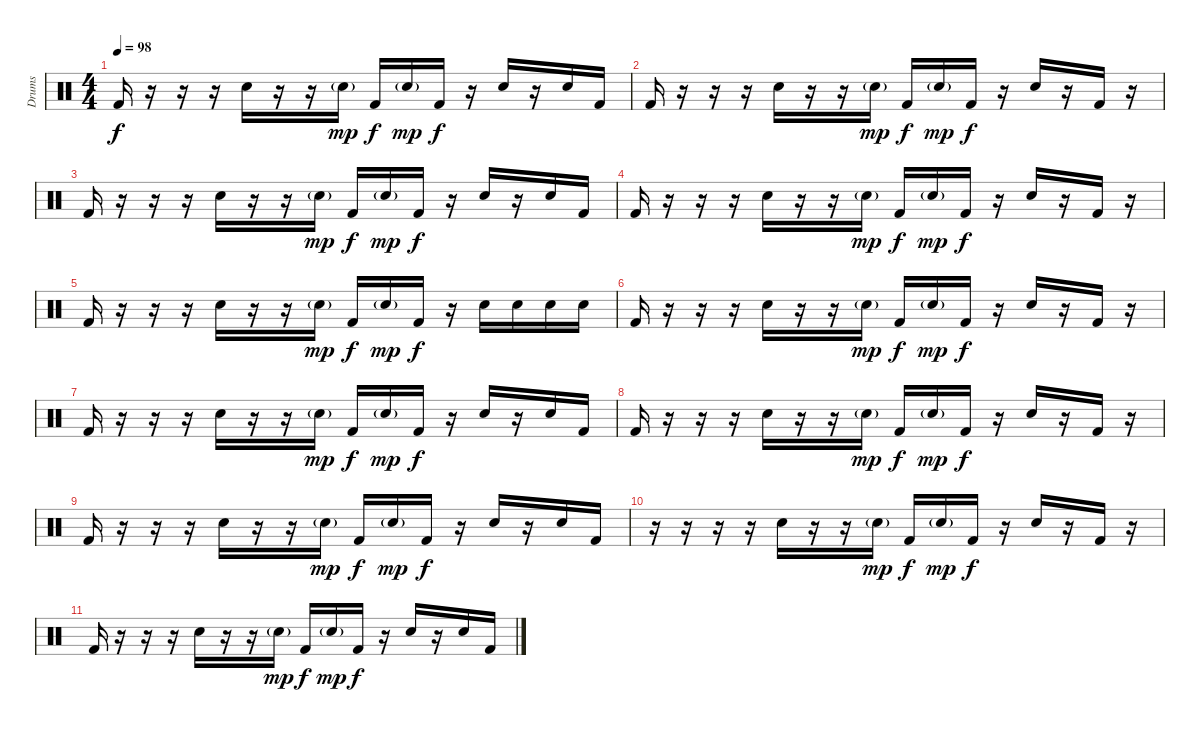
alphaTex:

\track ("Drums" "Drums") {instrument percussion}
\staff {score}
\articulation defaults
\ts (4 4)
\tempo 98
\clef neutral
\ks c "Kick (hit) 2".16{dy f}
r.16 r.16 r.16 "Electric Snare (hit)".16 r.16 r.16 "Electric Snare (hit)"{g}.16{dy mp} "Kick (hit) 2".16{dy f} "Electric Snare (hit)"{g}.16{dy mp} "Kick (hit) 2".16{dy f} r.16 "Electric Snare (hit)".16 r.16 "Electric Snare (hit)".16 "Kick (hit) 2".16 |
"Kick (hit) 2".16 r.16 r.16 r.16 "Electric Snare (hit)".16 r.16 r.16 "Electric Snare (hit)"{g}.16{dy mp} "Kick (hit) 2".16{dy f} "Electric Snare (hit)"{g}.16{dy mp} "Kick (hit) 2".16{dy f} r.16 "Electric Snare (hit)".16 r.16 "Kick (hit) 2".16 r.16 |
"Kick (hit) 2".16 r.16 r.16 r.16 "Electric Snare (hit)".16 r.16 r.16 "Electric Snare (hit)"{g}.16{dy mp} "Kick (hit) 2".16{dy f} "Electric Snare (hit)"{g}.16{dy mp} "Kick (hit) 2".16{dy f} r.16 "Electric Snare (hit)".16 r.16 "Electric Snare (hit)".16 "Kick (hit) 2".16 |
"Kick (hit) 2".16 r.16 r.16 r.16 "Electric Snare (hit)".16 r.16 r.16 "Electric Snare (hit)"{g}.16{dy mp} "Kick (hit) 2".16{dy f} "Electric Snare (hit)"{g}.16{dy mp} "Kick (hit) 2".16{dy f} r.16 "Electric Snare (hit)".16 r.16 "Kick (hit) 2".16 r.16 |
"Kick (hit) 2".16 r.16 r.16 r.16 "Electric Snare (hit)".16 r.16 r.16 "Electric Snare (hit)"{g}.16{dy mp} "Kick (hit) 2".16{dy f} "Electric Snare (hit)"{g}.16{dy mp} "Kick (hit) 2".16{dy f} r.16 "Electric Snare (hit)".16 "Electric Snare (hit)".16 "Electric Snare (hit)".16 "Electric Snare (hit)".16 |
"Kick (hit) 2".16 r.16 r.16 r.16 "Electric Snare (hit)".16 r.16 r.16 "Electric Snare (hit)"{g}.16{dy mp} "Kick (hit) 2".16{dy f} "Electric Snare (hit)"{g}.16{dy mp} "Kick (hit) 2".16{dy f} r.16 "Electric Snare (hit)".16 r.16 "Kick (hit) 2".16 r.16 |
"Kick (hit) 2".16 r.16 r.16 r.16 "Electric Snare (hit)".16 r.16 r.16 "Electric Snare (hit)"{g}.16{dy mp} "Kick (hit) 2".16{dy f} "Electric Snare (hit)"{g}.16{dy mp} "Kick (hit) 2".16{dy f} r.16 "Electric Snare (hit)".16 r.16 "Electric Snare (hit)".16 "Kick (hit) 2".16 |
"Kick (hit) 2".16 r.16 r.16 r.16 "Electric Snare (hit)".16 r.16 r.16 "Electric Snare (hit)"{g}.16{dy mp} "Kick (hit) 2".16{dy f} "Electric Snare (hit)"{g}.16{dy mp} "Kick (hit) 2".16{dy f} r.16 "Electric Snare (hit)".16 r.16 "Kick (hit) 2".16 r.16 |
"Kick (hit) 2".16 r.16 r.16 r.16 "Electric Snare (hit)".16 r.16 r.16 "Electric Snare (hit)"{g}.16{dy mp} "Kick (hit) 2".16{dy f} "Electric Snare (hit)"{g}.16{dy mp} "Kick (hit) 2".16{dy f} r.16 "Electric Snare (hit)".16 r.16 "Electric Snare (hit)".16 "Kick (hit) 2".16 |
r.16 r.16 r.16 r.16 "Electric Snare (hit)".16 r.16 r.16 "Electric Snare (hit)"{g}.16{dy mp} "Kick (hit) 2".16{dy f} "Electric Snare (hit)"{g}.16{dy mp} "Kick (hit) 2".16{dy f} r.16 "Electric Snare (hit)".16 r.16 "Kick (hit) 2".16 r.16 |
"Kick (hit) 2".16 r.16 r.16 r.16 "Electric Snare (hit)".16 r.16 r.16 "Electric Snare (hit)"{g}.16{dy mp} "Kick (hit) 2".16{dy f} "Electric Snare (hit)"{g}.16{dy mp} "Kick (hit) 2".16{dy f} r.16 "Electric Snare (hit)".16 r.16 "Electric Snare (hit)".16 "Kick (hit) 2".16
